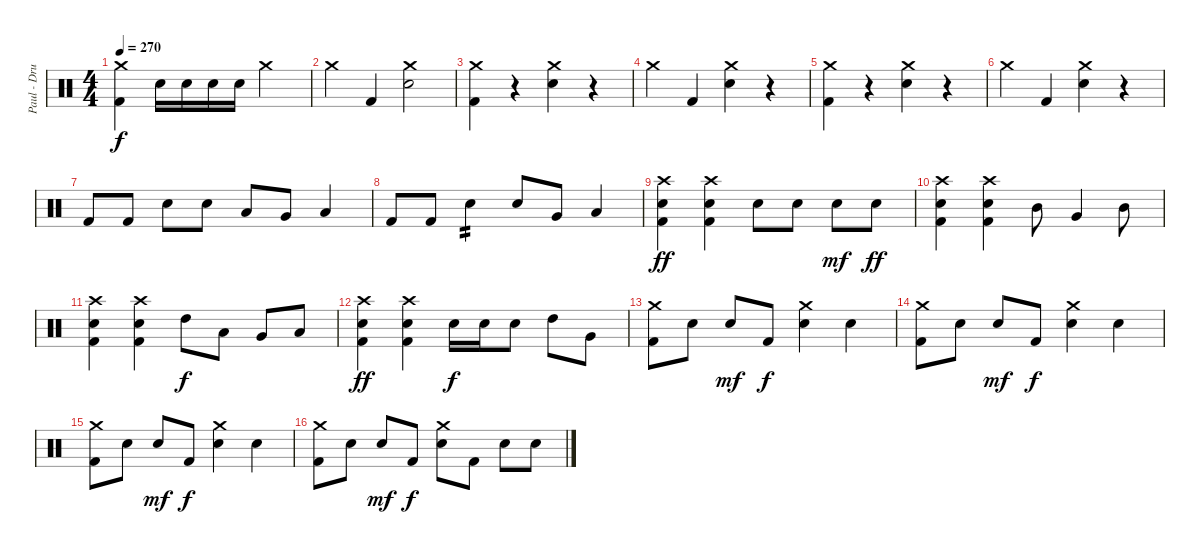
\track ("Paul - Drums" "Paul - Dru") {instrument percussion}
\staff {score}
\articulation defaults
\ts (4 4)
\tempo 270
\clef neutral
\ks c
("Crash medium (hit)" "Kick (hit) 2").4{dy f} "Electric Snare (hit)".16 "Electric Snare (hit)".16 "Electric Snare (hit)".16 "Electric Snare (hit)".16 "Crash medium (hit)".2 |
"Crash medium (hit)".4 "Kick (hit) 2".4 ("Crash medium (hit)" "Electric Snare (hit)").2 |
("Crash medium (hit)" "Kick (hit) 2").4 r.4 ("Crash medium (hit)" "Electric Snare (hit)").4 r.4 |
"Crash medium (hit)".4 "Kick (hit) 2".4 ("Crash medium (hit)" "Electric Snare (hit)").4 r.4 |
("Crash medium (hit)" "Kick (hit) 2").4 r.4 ("Crash medium (hit)" "Electric Snare (hit)").4 r.4 |
"Crash medium (hit)".4 "Kick (hit) 2".4 ("Crash medium (hit)" "Electric Snare (hit)").4 r.4 |
"Kick (hit) 2".8 "Kick (hit) 2".8 "Electric Snare (hit)".8 "Electric Snare (hit)".8 "Low Tom (hit)".8 "Very Low Tom (hit)".8 "Low Floor Tom (hit)".4 |
"Kick (hit) 2".8 "Kick (hit) 2".8 "Electric Snare (hit)".4{tp 2} "Electric Snare (hit)".8 "Very Low Tom (hit)".8 "Low Floor Tom (hit)".4 |
("Crash high (hit)" "Electric Snare (hit)" "Kick (hit) 2").4{dy ff} ("Crash high (hit)" "Electric Snare (hit)" "Kick (hit) 2").4 "Electric Snare (hit)".8 "Electric Snare (hit)".8 "Electric Snare (hit)".8{dy mf} "Electric Snare (hit)".8{dy ff} |
("Crash high (hit)" "Electric Snare (hit)" "Kick (hit) 2").4 ("Crash high (hit)" "Electric Snare (hit)" "Kick (hit) 2").4 "Mid Tom (hit)".8 "Very Low Tom (hit)".4 "Mid Tom (hit)".8 |
("Crash high (hit)" "Electric Snare (hit)" "Kick (hit) 2").4 ("Crash high (hit)" "Electric Snare (hit)" "Kick (hit) 2").4 "High Tom (hit)".8{dy f} "Low Tom (hit)".8 "Very Low Tom (hit)".8 "Low Floor Tom (hit)".8 |
("Crash high (hit)" "Electric Snare (hit)" "Kick (hit) 2").4{dy ff} ("Crash high (hit)" "Electric Snare (hit)" "Kick (hit) 2").4 "Electric Snare (hit)".16{dy f} "Electric Snare (hit)".16 "Electric Snare (hit)".8 "High Tom (hit)".8 "Very Low Tom (hit)".8 |
("Crash medium (hit)" "Kick (hit) 2").8 "Electric Snare (hit)".8 "Electric Snare (hit)".8{dy mf} "Kick (hit) 2".8{dy f} ("Crash medium (hit)" "Electric Snare (hit)").4 "Electric Snare (hit)".4 |
("Crash medium (hit)" "Kick (hit) 2").8 "Electric Snare (hit)".8 "Electric Snare (hit)".8{dy mf} "Kick (hit) 2".8{dy f} ("Crash medium (hit)" "Electric Snare (hit)").4 "Electric Snare (hit)".4 |
("Crash medium (hit)" "Kick (hit) 2").8 "Electric Snare (hit)".8 "Electric Snare (hit)".8{dy mf} "Kick (hit) 2".8{dy f} ("Crash medium (hit)" "Electric Snare (hit)").4 "Electric Snare (hit)".4 |
("Crash medium (hit)" "Kick (hit) 2").8 "Electric Snare (hit)".8 "Electric Snare (hit)".8{dy mf} "Kick (hit) 2".8{dy f} ("Crash medium (hit)" "Electric Snare (hit)").8 "Kick (hit) 2".8 "Electric Snare (hit)".8 "Electric Snare (hit)".8
